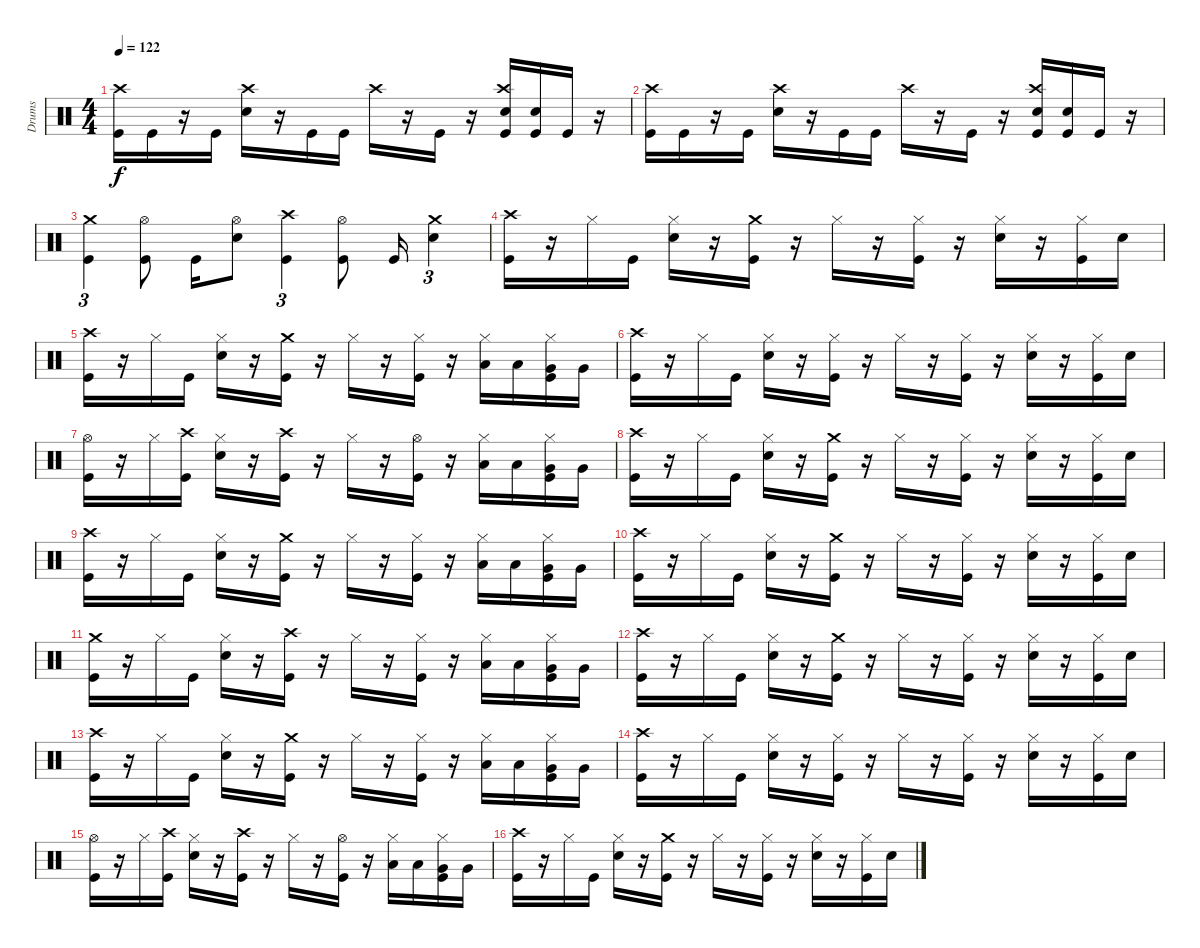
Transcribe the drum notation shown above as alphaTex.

\track ("Drums" "Drums") {instrument percussion}
\staff {score}
\articulation defaults
\ts (4 4)
\tempo 122
\clef neutral
\ks c
("Kick (hit)" "Crash high (hit)").16{dy f} "Kick (hit)".16 r.16 "Kick (hit)".16 ("Snare (hit) 2" "Crash high (hit)").16 r.16 "Kick (hit)".16 "Kick (hit)".16 "Crash high (hit)".16 r.16 "Kick (hit)".16 r.16 ("Snare (hit) 2" "Kick (hit)" "Crash high (hit)").16 ("Snare (hit) 2" "Kick (hit)").16 "Kick (hit)".16 r.16 |
("Kick (hit)" "Crash high (hit)").16 "Kick (hit)".16 r.16 "Kick (hit)".16 ("Snare (hit) 2" "Crash high (hit)").16 r.16 "Kick (hit)".16 "Kick (hit)".16 "Crash high (hit)".16 r.16 "Kick (hit)".16 r.16 ("Snare (hit) 2" "Kick (hit)" "Crash high (hit)").16 ("Snare (hit) 2" "Kick (hit)").16 "Kick (hit)".16 r.16 |
("Kick (hit)" "Crash medium (hit)").4{tu (3 2)} ("Kick (hit)" "Hi-Hat (open)").8 "Kick (hit)".16 ("Snare (hit) 2" "Hi-Hat (open)").8 ("Kick (hit)" "Crash high (hit)").4{tu (3 2)} ("Kick (hit)" "Hi-Hat (open)").8 "Kick (hit)".16 ("Snare (hit) 2" "Crash medium (hit)").4{tu (3 2)} |
("Kick (hit)" "Crash high (hit)").16 r.16 "Hi-Hat (closed)".16 "Kick (hit)".16 ("Snare (hit) 2" "Hi-Hat (closed)").16 r.16 ("Kick (hit)" "Crash medium (hit)").16 r.16 "Hi-Hat (closed)".16 r.16 ("Kick (hit)" "Hi-Hat (closed)").16 r.16 ("Snare (hit) 2" "Hi-Hat (closed)").16 r.16 ("Kick (hit)" "Hi-Hat (closed)").16 "Snare (hit) 2".16 |
("Kick (hit)" "Crash high (hit)").16 r.16 "Hi-Hat (closed)".16 "Kick (hit)".16 ("Snare (hit) 2" "Hi-Hat (closed)").16 r.16 ("Kick (hit)" "Crash medium (hit)").16 r.16 "Hi-Hat (closed)".16 r.16 ("Kick (hit)" "Hi-Hat (closed)").16 r.16 ("Low Tom (hit)" "Hi-Hat (closed)").16 "Low Tom (hit)".16 ("Very Low Tom (hit)" "Kick (hit)" "Hi-Hat (closed)").16 "Very Low Tom (hit)".16 |
("Kick (hit)" "Crash high (hit)").16 r.16 "Hi-Hat (closed)".16 "Kick (hit)".16 ("Snare (hit) 2" "Hi-Hat (closed)").16 r.16 ("Kick (hit)" "Hi-Hat (closed)").16 r.16 "Hi-Hat (closed)".16 r.16 ("Kick (hit)" "Hi-Hat (closed)").16 r.16 ("Snare (hit) 2" "Hi-Hat (closed)").16 r.16 ("Kick (hit)" "Hi-Hat (closed)").16 "Snare (hit) 2".16 |
("Kick (hit)" "Hi-Hat (open)").16 r.16 "Hi-Hat (closed)".16 ("Kick (hit)" "Crash high (hit)").16 ("Snare (hit) 2" "Hi-Hat (closed)").16 r.16 ("Kick (hit)" "Crash high (hit)").16 r.16 "Hi-Hat (closed)".16 r.16 ("Kick (hit)" "Hi-Hat (open)").16 r.16 ("Low Tom (hit)" "Hi-Hat (closed)").16 "Low Tom (hit)".16 ("Very Low Tom (hit)" "Kick (hit)" "Hi-Hat (closed)").16 "Very Low Tom (hit)".16 |
("Kick (hit)" "Crash high (hit)").16 r.16 "Hi-Hat (closed)".16 "Kick (hit)".16 ("Snare (hit) 2" "Hi-Hat (closed)").16 r.16 ("Kick (hit)" "Crash medium (hit)").16 r.16 "Hi-Hat (closed)".16 r.16 ("Kick (hit)" "Hi-Hat (closed)").16 r.16 ("Snare (hit) 2" "Hi-Hat (closed)").16 r.16 ("Kick (hit)" "Hi-Hat (closed)").16 "Snare (hit) 2".16 |
("Kick (hit)" "Crash high (hit)").16 r.16 "Hi-Hat (closed)".16 "Kick (hit)".16 ("Snare (hit) 2" "Hi-Hat (closed)").16 r.16 ("Kick (hit)" "Crash medium (hit)").16 r.16 "Hi-Hat (closed)".16 r.16 ("Kick (hit)" "Hi-Hat (closed)").16 r.16 ("Low Tom (hit)" "Hi-Hat (closed)").16 "Low Tom (hit)".16 ("Very Low Tom (hit)" "Kick (hit)" "Hi-Hat (closed)").16 "Very Low Tom (hit)".16 |
("Kick (hit)" "Crash high (hit)").16 r.16 "Hi-Hat (closed)".16 "Kick (hit)".16 ("Snare (hit) 2" "Hi-Hat (closed)").16 r.16 ("Kick (hit)" "Crash medium (hit)").16 r.16 "Hi-Hat (closed)".16 r.16 ("Kick (hit)" "Hi-Hat (closed)").16 r.16 ("Snare (hit) 2" "Hi-Hat (closed)").16 r.16 ("Kick (hit)" "Hi-Hat (closed)").16 "Snare (hit) 2".16 |
("Kick (hit)" "Crash medium (hit)").16 r.16 "Hi-Hat (closed)".16 "Kick (hit)".16 ("Snare (hit) 2" "Hi-Hat (closed)").16 r.16 ("Kick (hit)" "Crash high (hit)").16 r.16 "Hi-Hat (closed)".16 r.16 ("Kick (hit)" "Hi-Hat (closed)").16 r.16 ("Low Tom (hit)" "Hi-Hat (closed)").16 "Low Tom (hit)".16 ("Very Low Tom (hit)" "Kick (hit)" "Hi-Hat (closed)").16 "Very Low Tom (hit)".16 |
("Kick (hit)" "Crash high (hit)").16 r.16 "Hi-Hat (closed)".16 "Kick (hit)".16 ("Snare (hit) 2" "Hi-Hat (closed)").16 r.16 ("Kick (hit)" "Crash medium (hit)").16 r.16 "Hi-Hat (closed)".16 r.16 ("Kick (hit)" "Hi-Hat (closed)").16 r.16 ("Snare (hit) 2" "Hi-Hat (closed)").16 r.16 ("Kick (hit)" "Hi-Hat (closed)").16 "Snare (hit) 2".16 |
("Kick (hit)" "Crash high (hit)").16 r.16 "Hi-Hat (closed)".16 "Kick (hit)".16 ("Snare (hit) 2" "Hi-Hat (closed)").16 r.16 ("Kick (hit)" "Crash medium (hit)").16 r.16 "Hi-Hat (closed)".16 r.16 ("Kick (hit)" "Hi-Hat (closed)").16 r.16 ("Low Tom (hit)" "Hi-Hat (closed)").16 "Low Tom (hit)".16 ("Very Low Tom (hit)" "Kick (hit)" "Hi-Hat (closed)").16 "Very Low Tom (hit)".16 |
("Kick (hit)" "Crash high (hit)").16 r.16 "Hi-Hat (closed)".16 "Kick (hit)".16 ("Snare (hit) 2" "Hi-Hat (closed)").16 r.16 ("Kick (hit)" "Hi-Hat (closed)").16 r.16 "Hi-Hat (closed)".16 r.16 ("Kick (hit)" "Hi-Hat (closed)").16 r.16 ("Snare (hit) 2" "Hi-Hat (closed)").16 r.16 ("Kick (hit)" "Hi-Hat (closed)").16 "Snare (hit) 2".16 |
("Kick (hit)" "Hi-Hat (open)").16 r.16 "Hi-Hat (closed)".16 ("Kick (hit)" "Crash high (hit)").16 ("Snare (hit) 2" "Hi-Hat (closed)").16 r.16 ("Kick (hit)" "Crash high (hit)").16 r.16 "Hi-Hat (closed)".16 r.16 ("Kick (hit)" "Hi-Hat (open)").16 r.16 ("Low Tom (hit)" "Hi-Hat (closed)").16 "Low Tom (hit)".16 ("Very Low Tom (hit)" "Kick (hit)" "Hi-Hat (closed)").16 "Very Low Tom (hit)".16 |
("Kick (hit)" "Crash high (hit)").16 r.16 "Hi-Hat (closed)".16 "Kick (hit)".16 ("Snare (hit) 2" "Hi-Hat (closed)").16 r.16 ("Kick (hit)" "Crash medium (hit)").16 r.16 "Hi-Hat (closed)".16 r.16 ("Kick (hit)" "Hi-Hat (closed)").16 r.16 ("Snare (hit) 2" "Hi-Hat (closed)").16 r.16 ("Kick (hit)" "Hi-Hat (closed)").16 "Snare (hit) 2".16
